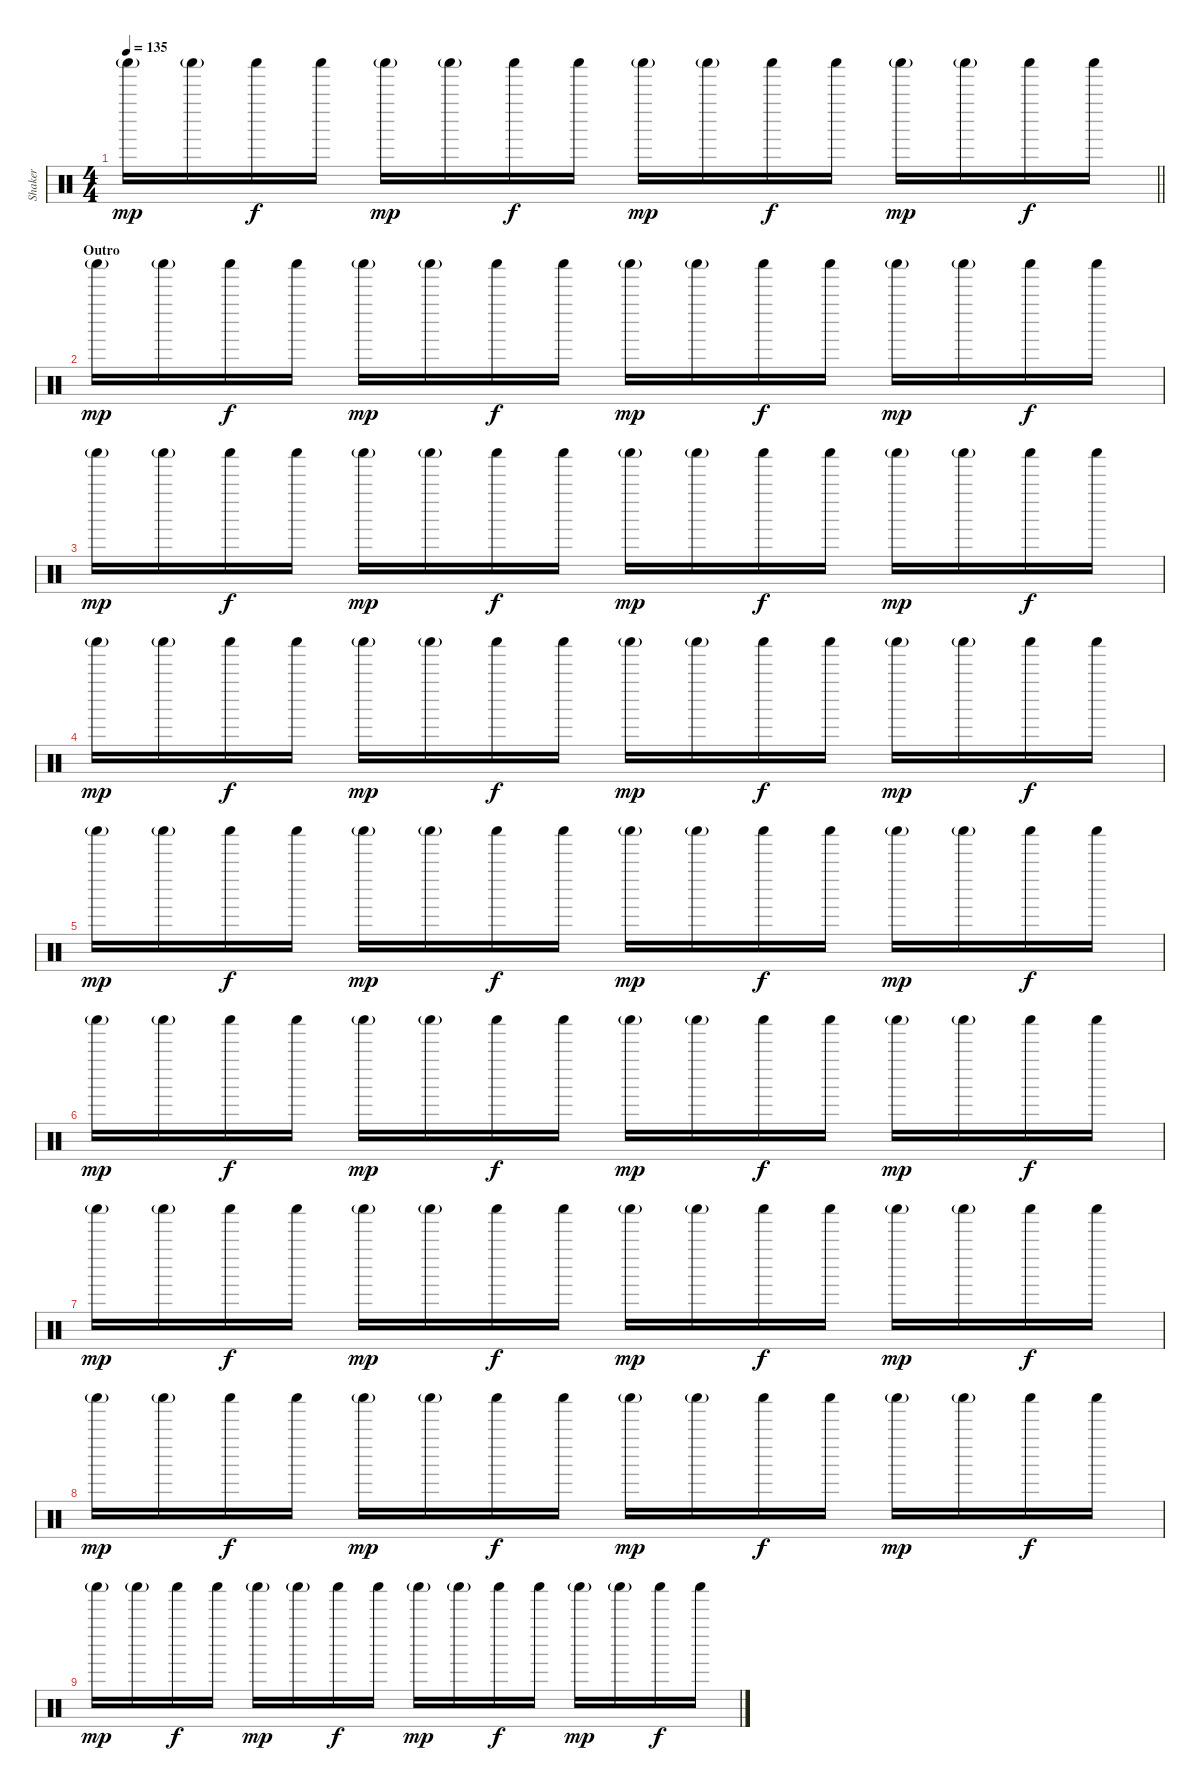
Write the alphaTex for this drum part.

\track ("Shaker" "Shaker") {instrument percussion}
\staff {score}
\articulation defaults
\ts (4 4)
\tempo 135
\clef neutral
\barLineRight lightlight
\ks c "Shaker (hit)"{g}.16{dy mp} "Shaker (hit)"{g}.16 "Shaker (hit)".16{dy f} "Shaker (hit)".16 "Shaker (hit)"{g}.16{dy mp} "Shaker (hit)"{g}.16 "Shaker (hit)".16{dy f} "Shaker (hit)".16 "Shaker (hit)"{g}.16{dy mp} "Shaker (hit)"{g}.16 "Shaker (hit)".16{dy f} "Shaker (hit)".16 "Shaker (hit)"{g}.16{dy mp} "Shaker (hit)"{g}.16 "Shaker (hit)".16{dy f} "Shaker (hit)".16
|
\section ("" "Outro")
"Shaker (hit)"{g}.16{dy mp} "Shaker (hit)"{g}.16 "Shaker (hit)".16{dy f} "Shaker (hit)".16 "Shaker (hit)"{g}.16{dy mp} "Shaker (hit)"{g}.16 "Shaker (hit)".16{dy f} "Shaker (hit)".16 "Shaker (hit)"{g}.16{dy mp} "Shaker (hit)"{g}.16 "Shaker (hit)".16{dy f} "Shaker (hit)".16 "Shaker (hit)"{g}.16{dy mp} "Shaker (hit)"{g}.16 "Shaker (hit)".16{dy f} "Shaker (hit)".16 |
"Shaker (hit)"{g}.16{dy mp} "Shaker (hit)"{g}.16 "Shaker (hit)".16{dy f} "Shaker (hit)".16 "Shaker (hit)"{g}.16{dy mp} "Shaker (hit)"{g}.16 "Shaker (hit)".16{dy f} "Shaker (hit)".16 "Shaker (hit)"{g}.16{dy mp} "Shaker (hit)"{g}.16 "Shaker (hit)".16{dy f} "Shaker (hit)".16 "Shaker (hit)"{g}.16{dy mp} "Shaker (hit)"{g}.16 "Shaker (hit)".16{dy f} "Shaker (hit)".16 |
"Shaker (hit)"{g}.16{dy mp} "Shaker (hit)"{g}.16 "Shaker (hit)".16{dy f} "Shaker (hit)".16 "Shaker (hit)"{g}.16{dy mp} "Shaker (hit)"{g}.16 "Shaker (hit)".16{dy f} "Shaker (hit)".16 "Shaker (hit)"{g}.16{dy mp} "Shaker (hit)"{g}.16 "Shaker (hit)".16{dy f} "Shaker (hit)".16 "Shaker (hit)"{g}.16{dy mp} "Shaker (hit)"{g}.16 "Shaker (hit)".16{dy f} "Shaker (hit)".16 |
"Shaker (hit)"{g}.16{dy mp} "Shaker (hit)"{g}.16 "Shaker (hit)".16{dy f} "Shaker (hit)".16 "Shaker (hit)"{g}.16{dy mp} "Shaker (hit)"{g}.16 "Shaker (hit)".16{dy f} "Shaker (hit)".16 "Shaker (hit)"{g}.16{dy mp} "Shaker (hit)"{g}.16 "Shaker (hit)".16{dy f} "Shaker (hit)".16 "Shaker (hit)"{g}.16{dy mp} "Shaker (hit)"{g}.16 "Shaker (hit)".16{dy f} "Shaker (hit)".16 |
"Shaker (hit)"{g}.16{dy mp} "Shaker (hit)"{g}.16 "Shaker (hit)".16{dy f} "Shaker (hit)".16 "Shaker (hit)"{g}.16{dy mp} "Shaker (hit)"{g}.16 "Shaker (hit)".16{dy f} "Shaker (hit)".16 "Shaker (hit)"{g}.16{dy mp} "Shaker (hit)"{g}.16 "Shaker (hit)".16{dy f} "Shaker (hit)".16 "Shaker (hit)"{g}.16{dy mp} "Shaker (hit)"{g}.16 "Shaker (hit)".16{dy f} "Shaker (hit)".16 |
"Shaker (hit)"{g}.16{dy mp} "Shaker (hit)"{g}.16 "Shaker (hit)".16{dy f} "Shaker (hit)".16 "Shaker (hit)"{g}.16{dy mp} "Shaker (hit)"{g}.16 "Shaker (hit)".16{dy f} "Shaker (hit)".16 "Shaker (hit)"{g}.16{dy mp} "Shaker (hit)"{g}.16 "Shaker (hit)".16{dy f} "Shaker (hit)".16 "Shaker (hit)"{g}.16{dy mp} "Shaker (hit)"{g}.16 "Shaker (hit)".16{dy f} "Shaker (hit)".16 |
"Shaker (hit)"{g}.16{dy mp} "Shaker (hit)"{g}.16 "Shaker (hit)".16{dy f} "Shaker (hit)".16 "Shaker (hit)"{g}.16{dy mp} "Shaker (hit)"{g}.16 "Shaker (hit)".16{dy f} "Shaker (hit)".16 "Shaker (hit)"{g}.16{dy mp} "Shaker (hit)"{g}.16 "Shaker (hit)".16{dy f} "Shaker (hit)".16 "Shaker (hit)"{g}.16{dy mp} "Shaker (hit)"{g}.16 "Shaker (hit)".16{dy f} "Shaker (hit)".16 |
"Shaker (hit)"{g}.16{dy mp} "Shaker (hit)"{g}.16 "Shaker (hit)".16{dy f} "Shaker (hit)".16 "Shaker (hit)"{g}.16{dy mp} "Shaker (hit)"{g}.16 "Shaker (hit)".16{dy f} "Shaker (hit)".16 "Shaker (hit)"{g}.16{dy mp} "Shaker (hit)"{g}.16 "Shaker (hit)".16{dy f} "Shaker (hit)".16 "Shaker (hit)"{g}.16{dy mp} "Shaker (hit)"{g}.16 "Shaker (hit)".16{dy f} "Shaker (hit)".16
